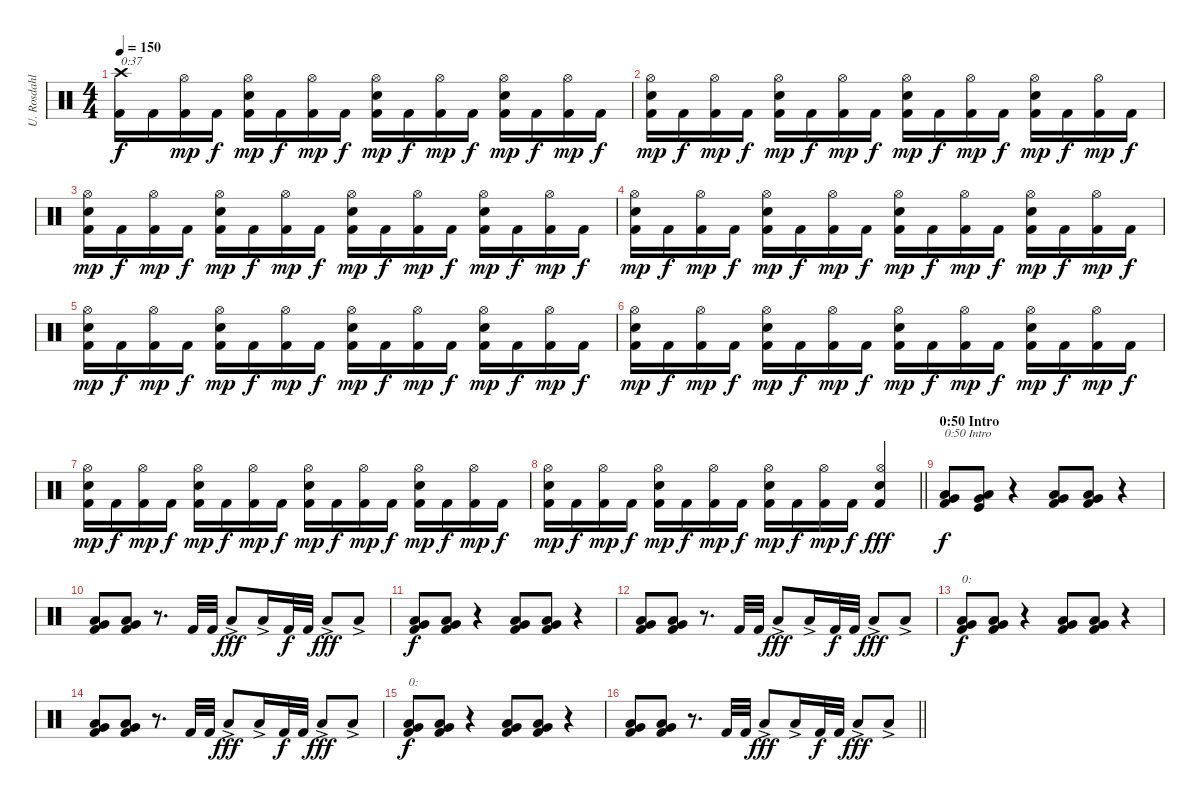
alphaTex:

\track ("U. Rosdahl" "U. Rosdahl") {instrument percussion}
\staff {score}
\articulation defaults
\ts (4 4)
\tempo 150
\clef neutral
\ks c
("Kick (hit) 2" "Crash high (hit)").16{txt "0:37" dy f} "Kick (hit) 2".16 ("Kick (hit) 2" "Hi-Hat (open)").16{dy mp} "Kick (hit) 2".16{dy f} ("Kick (hit) 2" "Electric Snare (hit)" "Hi-Hat (open)").16{dy mp} "Kick (hit) 2".16{dy f} ("Kick (hit) 2" "Hi-Hat (open)").16{dy mp} "Kick (hit) 2".16{dy f} ("Kick (hit) 2" "Electric Snare (hit)" "Hi-Hat (open)").16{dy mp} "Kick (hit) 2".16{dy f} ("Kick (hit) 2" "Hi-Hat (open)").16{dy mp} "Kick (hit) 2".16{dy f} ("Kick (hit) 2" "Electric Snare (hit)" "Hi-Hat (open)").16{dy mp} "Kick (hit) 2".16{dy f} ("Kick (hit) 2" "Hi-Hat (open)").16{dy mp} "Kick (hit) 2".16{dy f} |
("Kick (hit) 2" "Electric Snare (hit)" "Hi-Hat (open)").16{dy mp} "Kick (hit) 2".16{dy f} ("Kick (hit) 2" "Hi-Hat (open)").16{dy mp} "Kick (hit) 2".16{dy f} ("Kick (hit) 2" "Electric Snare (hit)" "Hi-Hat (open)").16{dy mp} "Kick (hit) 2".16{dy f} ("Kick (hit) 2" "Hi-Hat (open)").16{dy mp} "Kick (hit) 2".16{dy f} ("Kick (hit) 2" "Electric Snare (hit)" "Hi-Hat (open)").16{dy mp} "Kick (hit) 2".16{dy f} ("Kick (hit) 2" "Hi-Hat (open)").16{dy mp} "Kick (hit) 2".16{dy f} ("Kick (hit) 2" "Electric Snare (hit)" "Hi-Hat (open)").16{dy mp} "Kick (hit) 2".16{dy f} ("Kick (hit) 2" "Hi-Hat (open)").16{dy mp} "Kick (hit) 2".16{dy f} |
("Kick (hit) 2" "Electric Snare (hit)" "Hi-Hat (open)").16{dy mp} "Kick (hit) 2".16{dy f} ("Kick (hit) 2" "Hi-Hat (open)").16{dy mp} "Kick (hit) 2".16{dy f} ("Kick (hit) 2" "Electric Snare (hit)" "Hi-Hat (open)").16{dy mp} "Kick (hit) 2".16{dy f} ("Kick (hit) 2" "Hi-Hat (open)").16{dy mp} "Kick (hit) 2".16{dy f} ("Kick (hit) 2" "Electric Snare (hit)" "Hi-Hat (open)").16{dy mp} "Kick (hit) 2".16{dy f} ("Kick (hit) 2" "Hi-Hat (open)").16{dy mp} "Kick (hit) 2".16{dy f} ("Kick (hit) 2" "Electric Snare (hit)" "Hi-Hat (open)").16{dy mp} "Kick (hit) 2".16{dy f} ("Kick (hit) 2" "Hi-Hat (open)").16{dy mp} "Kick (hit) 2".16{dy f} |
("Kick (hit) 2" "Electric Snare (hit)" "Hi-Hat (open)").16{dy mp} "Kick (hit) 2".16{dy f} ("Kick (hit) 2" "Hi-Hat (open)").16{dy mp} "Kick (hit) 2".16{dy f} ("Kick (hit) 2" "Electric Snare (hit)" "Hi-Hat (open)").16{dy mp} "Kick (hit) 2".16{dy f} ("Kick (hit) 2" "Hi-Hat (open)").16{dy mp} "Kick (hit) 2".16{dy f} ("Kick (hit) 2" "Electric Snare (hit)" "Hi-Hat (open)").16{dy mp} "Kick (hit) 2".16{dy f} ("Kick (hit) 2" "Hi-Hat (open)").16{dy mp} "Kick (hit) 2".16{dy f} ("Kick (hit) 2" "Electric Snare (hit)" "Hi-Hat (open)").16{dy mp} "Kick (hit) 2".16{dy f} ("Kick (hit) 2" "Hi-Hat (open)").16{dy mp} "Kick (hit) 2".16{dy f} |
("Kick (hit) 2" "Electric Snare (hit)" "Hi-Hat (open)").16{dy mp} "Kick (hit) 2".16{dy f} ("Kick (hit) 2" "Hi-Hat (open)").16{dy mp} "Kick (hit) 2".16{dy f} ("Kick (hit) 2" "Electric Snare (hit)" "Hi-Hat (open)").16{dy mp} "Kick (hit) 2".16{dy f} ("Kick (hit) 2" "Hi-Hat (open)").16{dy mp} "Kick (hit) 2".16{dy f} ("Kick (hit) 2" "Electric Snare (hit)" "Hi-Hat (open)").16{dy mp} "Kick (hit) 2".16{dy f} ("Kick (hit) 2" "Hi-Hat (open)").16{dy mp} "Kick (hit) 2".16{dy f} ("Kick (hit) 2" "Electric Snare (hit)" "Hi-Hat (open)").16{dy mp} "Kick (hit) 2".16{dy f} ("Kick (hit) 2" "Hi-Hat (open)").16{dy mp} "Kick (hit) 2".16{dy f} |
("Kick (hit) 2" "Electric Snare (hit)" "Hi-Hat (open)").16{dy mp} "Kick (hit) 2".16{dy f} ("Kick (hit) 2" "Hi-Hat (open)").16{dy mp} "Kick (hit) 2".16{dy f} ("Kick (hit) 2" "Electric Snare (hit)" "Hi-Hat (open)").16{dy mp} "Kick (hit) 2".16{dy f} ("Kick (hit) 2" "Hi-Hat (open)").16{dy mp} "Kick (hit) 2".16{dy f} ("Kick (hit) 2" "Electric Snare (hit)" "Hi-Hat (open)").16{dy mp} "Kick (hit) 2".16{dy f} ("Kick (hit) 2" "Hi-Hat (open)").16{dy mp} "Kick (hit) 2".16{dy f} ("Kick (hit) 2" "Electric Snare (hit)" "Hi-Hat (open)").16{dy mp} "Kick (hit) 2".16{dy f} ("Kick (hit) 2" "Hi-Hat (open)").16{dy mp} "Kick (hit) 2".16{dy f} |
("Kick (hit) 2" "Electric Snare (hit)" "Hi-Hat (open)").16{dy mp} "Kick (hit) 2".16{dy f} ("Kick (hit) 2" "Hi-Hat (open)").16{dy mp} "Kick (hit) 2".16{dy f} ("Kick (hit) 2" "Electric Snare (hit)" "Hi-Hat (open)").16{dy mp} "Kick (hit) 2".16{dy f} ("Kick (hit) 2" "Hi-Hat (open)").16{dy mp} "Kick (hit) 2".16{dy f} ("Kick (hit) 2" "Electric Snare (hit)" "Hi-Hat (open)").16{dy mp} "Kick (hit) 2".16{dy f} ("Kick (hit) 2" "Hi-Hat (open)").16{dy mp} "Kick (hit) 2".16{dy f} ("Kick (hit) 2" "Electric Snare (hit)" "Hi-Hat (open)").16{dy mp} "Kick (hit) 2".16{dy f} ("Kick (hit) 2" "Hi-Hat (open)").16{dy mp} "Kick (hit) 2".16{dy f} |
\barLineRight lightlight
("Kick (hit) 2" "Electric Snare (hit)" "Hi-Hat (open)").16{dy mp} "Kick (hit) 2".16{dy f} ("Kick (hit) 2" "Hi-Hat (open)").16{dy mp} "Kick (hit) 2".16{dy f} ("Kick (hit) 2" "Electric Snare (hit)" "Hi-Hat (open)").16{dy mp} "Kick (hit) 2".16{dy f} ("Kick (hit) 2" "Hi-Hat (open)").16{dy mp} "Kick (hit) 2".16{dy f} ("Kick (hit) 2" "Electric Snare (hit)" "Hi-Hat (open)").16{dy mp} "Kick (hit) 2".16{dy f} ("Kick (hit) 2" "Hi-Hat (open)").16{dy mp} "Kick (hit) 2".16{dy f} ("Kick (hit) 2" "Electric Snare (hit)" "Hi-Hat (open)").4{dy fff} |
\section ("" "0:50 Intro")
("Kick (hit) 2" "Very Low Tom (hit)" "Low Tom (hit)").8{txt "0:50 Intro" dy f} ("Kick (hit)" "Very Low Tom (hit)" "Low Tom (hit)").8 r.4 ("Kick (hit) 2" "Very Low Tom (hit)" "Low Tom (hit)").8 ("Kick (hit) 2" "Very Low Tom (hit)" "Low Tom (hit)").8 r.4 |
("Kick (hit) 2" "Very Low Tom (hit)" "Low Tom (hit)").8 ("Kick (hit) 2" "Very Low Tom (hit)" "Low Tom (hit)").8 r.8{d} "Kick (hit) 2".32 "Kick (hit) 2".32 "Low Tom (hit)"{ac}.8{dy fff} "Low Tom (hit)"{ac}.16 "Kick (hit) 2".32{dy f} "Kick (hit) 2".32 "Low Tom (hit)"{ac}.8{dy fff} "Low Tom (hit)"{ac}.8 |
("Kick (hit) 2" "Very Low Tom (hit)" "Low Tom (hit)").8{dy f} ("Kick (hit) 2" "Very Low Tom (hit)" "Low Tom (hit)").8 r.4 ("Kick (hit) 2" "Very Low Tom (hit)" "Low Tom (hit)").8 ("Kick (hit) 2" "Very Low Tom (hit)" "Low Tom (hit)").8 r.4 |
("Kick (hit) 2" "Very Low Tom (hit)" "Low Tom (hit)").8 ("Kick (hit) 2" "Very Low Tom (hit)" "Low Tom (hit)").8 r.8{d} "Kick (hit) 2".32 "Kick (hit) 2".32 "Low Tom (hit)"{ac}.8{dy fff} "Low Tom (hit)"{ac}.16 "Kick (hit) 2".32{dy f} "Kick (hit) 2".32 "Low Tom (hit)"{ac}.8{dy fff} "Low Tom (hit)"{ac}.8 |
("Kick (hit) 2" "Very Low Tom (hit)" "Low Tom (hit)").8{txt "0:" dy f} ("Kick (hit) 2" "Very Low Tom (hit)" "Low Tom (hit)").8 r.4 ("Kick (hit) 2" "Very Low Tom (hit)" "Low Tom (hit)").8 ("Kick (hit) 2" "Very Low Tom (hit)" "Low Tom (hit)").8 r.4 |
("Kick (hit) 2" "Very Low Tom (hit)" "Low Tom (hit)").8 ("Kick (hit) 2" "Very Low Tom (hit)" "Low Tom (hit)").8 r.8{d} "Kick (hit) 2".32 "Kick (hit) 2".32 "Low Tom (hit)"{ac}.8{dy fff} "Low Tom (hit)"{ac}.16 "Kick (hit) 2".32{dy f} "Kick (hit) 2".32 "Low Tom (hit)"{ac}.8{dy fff} "Low Tom (hit)"{ac}.8 |
("Kick (hit) 2" "Very Low Tom (hit)" "Low Tom (hit)").8{txt "0:" dy f} ("Kick (hit) 2" "Very Low Tom (hit)" "Low Tom (hit)").8 r.4 ("Kick (hit) 2" "Very Low Tom (hit)" "Low Tom (hit)").8 ("Kick (hit) 2" "Very Low Tom (hit)" "Low Tom (hit)").8 r.4 |
\barLineRight lightlight
("Kick (hit) 2" "Very Low Tom (hit)" "Low Tom (hit)").8 ("Kick (hit) 2" "Very Low Tom (hit)" "Low Tom (hit)").8 r.8{d} "Kick (hit) 2".32 "Kick (hit) 2".32 "Low Tom (hit)"{ac}.8{dy fff} "Low Tom (hit)"{ac}.16 "Kick (hit) 2".32{dy f} "Kick (hit) 2".32 "Low Tom (hit)"{ac}.8{dy fff} "Low Tom (hit)"{ac}.8
